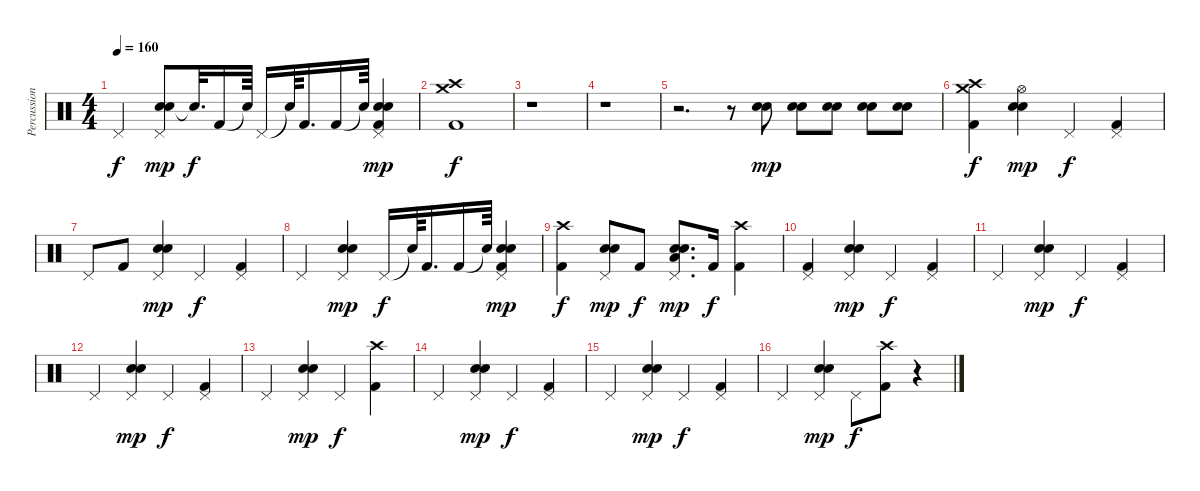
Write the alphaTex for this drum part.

\track ("Percussion" "Percussion") {instrument percussion}
\staff {score}
\articulation defaults
\ts (4 4)
\tempo 160
\clef neutral
\ks c "Pedal Hi-Hat (hit)".4{dy f}
("Snare (hit) 2" "Electric Snare (hit)" "Pedal Hi-Hat (hit)").8{dy mp} "Snare (hit)"{t}.32{d dy f} "Kick (hit) 2".16 "Snare (hit)"{t}.64 "Pedal Hi-Hat (hit)".16 "Snare (hit)"{t}.64 "Kick (hit) 2".16{d} "Kick (hit) 2".16 "Snare (hit)"{t}.64 ("Snare (hit) 2" "Electric Snare (hit)" "Pedal Hi-Hat (hit)" "Kick (hit) 2").4{dy mp} |
("Kick (hit) 2" "Crash high (hit)" "Crash medium (hit)").1{dy f} |
r.1 |
r.1 |
r.2{d} r.8 ("Snare (hit) 2" "Electric Snare (hit)").8{dy mp} ("Snare (hit) 2" "Electric Snare (hit)").8 ("Snare (hit) 2" "Electric Snare (hit)").8 ("Snare (hit) 2" "Electric Snare (hit)").8 ("Snare (hit) 2" "Electric Snare (hit)").8 |
("Crash medium (hit)" "Kick (hit) 2" "Crash high (hit)").4{dy f} ("Snare (hit) 2" "Electric Snare (hit)" "Hi-Hat (open)").4{dy mp} "Pedal Hi-Hat (hit)".4{dy f} ("Pedal Hi-Hat (hit)" "Kick (hit) 2").4 |
"Pedal Hi-Hat (hit)".8 "Kick (hit) 2".8 ("Pedal Hi-Hat (hit)" "Snare (hit) 2" "Electric Snare (hit)").4{dy mp} "Pedal Hi-Hat (hit)".4{dy f} ("Pedal Hi-Hat (hit)" "Kick (hit) 2").4 |
"Pedal Hi-Hat (hit)".4 ("Pedal Hi-Hat (hit)" "Snare (hit) 2" "Electric Snare (hit)").4{dy mp} "Pedal Hi-Hat (hit)".16{dy f} "Snare (hit)"{t}.64 "Kick (hit) 2".16{d} "Kick (hit) 2".16 "Snare (hit)"{t}.64 ("Pedal Hi-Hat (hit)" "Snare (hit) 2" "Kick (hit) 2" "Electric Snare (hit)").4{dy mp} |
("Kick (hit) 2" "Crash high (hit)").4{dy f} ("Pedal Hi-Hat (hit)" "Electric Snare (hit)" "Snare (hit) 2").8{dy mp} "Kick (hit) 2".8{dy f} ("Pedal Hi-Hat (hit)" "Snare (hit) 2" "Low Tom (hit)" "Electric Snare (hit)").8{d dy mp} "Kick (hit) 2".16{dy f} ("Crash high (hit)" "Kick (hit) 2").4 |
("Pedal Hi-Hat (hit)" "Kick (hit) 2").4 ("Pedal Hi-Hat (hit)" "Snare (hit) 2" "Electric Snare (hit)").4{dy mp} "Pedal Hi-Hat (hit)".4{dy f} ("Kick (hit) 2" "Pedal Hi-Hat (hit)").4 |
"Pedal Hi-Hat (hit)".4 ("Snare (hit) 2" "Pedal Hi-Hat (hit)" "Electric Snare (hit)").4{dy mp} "Pedal Hi-Hat (hit)".4{dy f} ("Kick (hit) 2" "Pedal Hi-Hat (hit)").4 |
"Pedal Hi-Hat (hit)".4 ("Snare (hit) 2" "Pedal Hi-Hat (hit)" "Electric Snare (hit)").4{dy mp} "Pedal Hi-Hat (hit)".4{dy f} ("Kick (hit) 2" "Pedal Hi-Hat (hit)").4 |
"Pedal Hi-Hat (hit)".4 ("Snare (hit) 2" "Pedal Hi-Hat (hit)" "Electric Snare (hit)").4{dy mp} "Pedal Hi-Hat (hit)".4{dy f} ("Crash high (hit)" "Kick (hit) 2").4 |
"Pedal Hi-Hat (hit)".4 ("Pedal Hi-Hat (hit)" "Snare (hit) 2" "Electric Snare (hit)").4{dy mp} "Pedal Hi-Hat (hit)".4{dy f} ("Kick (hit) 2" "Pedal Hi-Hat (hit)").4 |
"Pedal Hi-Hat (hit)".4 ("Snare (hit) 2" "Pedal Hi-Hat (hit)" "Electric Snare (hit)").4{dy mp} "Pedal Hi-Hat (hit)".4{dy f} ("Pedal Hi-Hat (hit)" "Kick (hit) 2").4 |
"Pedal Hi-Hat (hit)".4 ("Pedal Hi-Hat (hit)" "Snare (hit) 2" "Electric Snare (hit)").4{dy mp} "Pedal Hi-Hat (hit)".8{dy f} ("Crash high (hit)" "Kick (hit) 2").8 r.4
